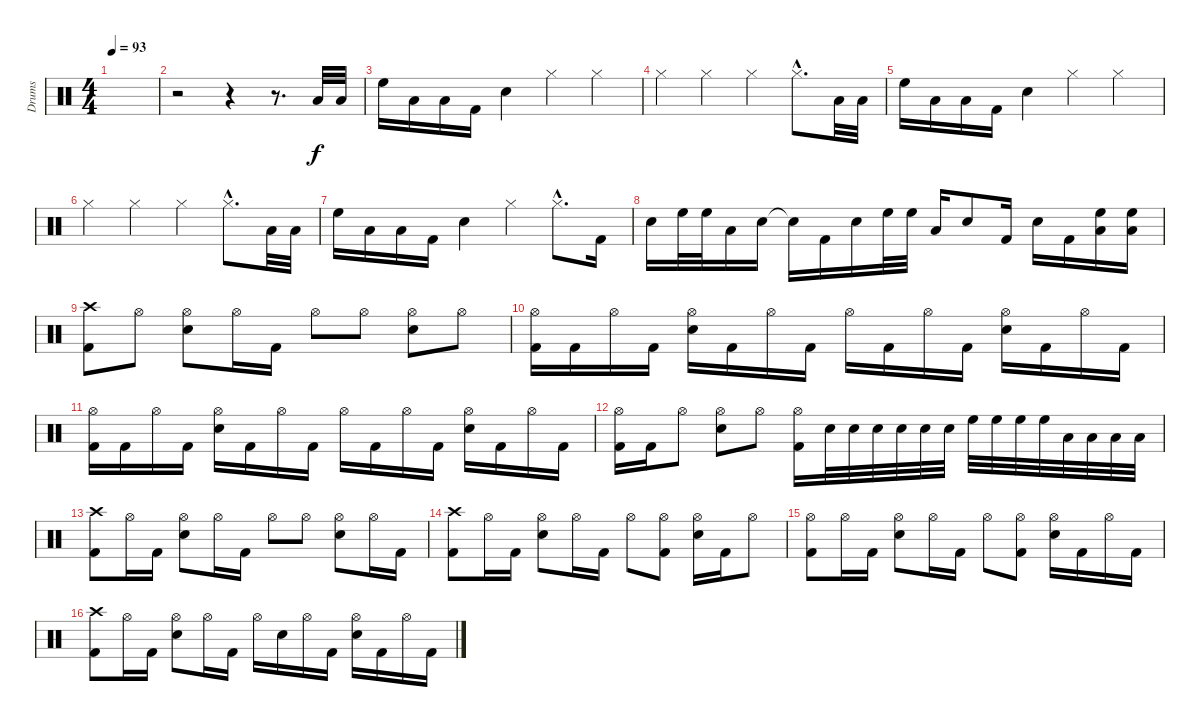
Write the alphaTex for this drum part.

\track ("Drums" "Drums") {instrument percussion}
\staff {score}
\articulation defaults
\ts (4 4)
\tempo 93
\clef neutral
\ks c
|
r.2 r.4 r.8{d} "Low Floor Tom (hit)".32 "Low Floor Tom (hit)".32 |
"High Floor Tom (hit)".16 "Low Floor Tom (hit)".16 "Low Floor Tom (hit)".16 "Kick (hit) 2".16 "Electric Snare (hit)".4 "Hi-Hat (closed)".4 "Hi-Hat (closed)".4 |
"Hi-Hat (closed)".4 "Hi-Hat (closed)".4 "Hi-Hat (closed)".4 "Hi-Hat (closed)"{hac}.8{d} "Low Floor Tom (hit)".32 "Low Floor Tom (hit)".32 |
"High Floor Tom (hit)".16 "Low Floor Tom (hit)".16 "Low Floor Tom (hit)".16 "Kick (hit) 2".16 "Electric Snare (hit)".4 "Hi-Hat (closed)".4 "Hi-Hat (closed)".4 |
"Hi-Hat (closed)".4 "Hi-Hat (closed)".4 "Hi-Hat (closed)".4 "Hi-Hat (closed)"{hac}.8{d} "Low Floor Tom (hit)".32 "Low Floor Tom (hit)".32 |
"High Floor Tom (hit)".16 "Low Floor Tom (hit)".16 "Low Floor Tom (hit)".16 "Kick (hit) 2".16 "Electric Snare (hit)".4 "Hi-Hat (closed)".4 "Hi-Hat (closed)"{hac}.8{d} "Kick (hit) 2".16 |
"Electric Snare (hit)".16 "High Floor Tom (hit)".32 "High Floor Tom (hit)".32 "Low Floor Tom (hit)".16 "Electric Snare (hit)".16 "Snare (hit)"{t}.16 "Kick (hit) 2".16 "Electric Snare (hit)".16 "High Floor Tom (hit)".32 "High Floor Tom (hit)".32 "Low Floor Tom (hit)".16 "Electric Snare (hit)".8 "Kick (hit) 2".16 "Electric Snare (hit)".16 "Kick (hit) 2".16 ("High Floor Tom (hit)" "Low Floor Tom (hit)").16 ("High Floor Tom (hit)" "Low Floor Tom (hit)").16 |
("Crash high (hit)" "Kick (hit) 2").8 "Hi-Hat (open)".8 ("Hi-Hat (open)" "Electric Snare (hit)").8 "Hi-Hat (open)".16 "Kick (hit) 2".16 "Hi-Hat (open)".8 "Hi-Hat (open)".8 ("Hi-Hat (open)" "Electric Snare (hit)").8 "Hi-Hat (open)".8 |
("Hi-Hat (open)" "Kick (hit) 2").16 "Kick (hit) 2".16 "Hi-Hat (open)".16 "Kick (hit) 2".16 ("Hi-Hat (open)" "Electric Snare (hit)").16 "Kick (hit) 2".16 "Hi-Hat (open)".16 "Kick (hit) 2".16 "Hi-Hat (open)".16 "Kick (hit) 2".16 "Hi-Hat (open)".16 "Kick (hit) 2".16 ("Hi-Hat (open)" "Electric Snare (hit)").16 "Kick (hit) 2".16 "Hi-Hat (open)".16 "Kick (hit) 2".16 |
("Hi-Hat (open)" "Kick (hit) 2").16 "Kick (hit) 2".16 "Hi-Hat (open)".16 "Kick (hit) 2".16 ("Hi-Hat (open)" "Electric Snare (hit)").16 "Kick (hit) 2".16 "Hi-Hat (open)".16 "Kick (hit) 2".16 "Hi-Hat (open)".16 "Kick (hit) 2".16 "Hi-Hat (open)".16 "Kick (hit) 2".16 ("Hi-Hat (open)" "Electric Snare (hit)").16 "Kick (hit) 2".16 "Hi-Hat (open)".16 "Kick (hit) 2".16 |
("Hi-Hat (open)" "Kick (hit) 2").16 "Kick (hit) 2".16 "Hi-Hat (open)".8 ("Hi-Hat (open)" "Electric Snare (hit)").8 "Hi-Hat (open)".8 ("Hi-Hat (open)" "Kick (hit) 2").16 "Electric Snare (hit)".32 "Electric Snare (hit)".32 "Electric Snare (hit)".32 "Electric Snare (hit)".32 "Electric Snare (hit)".32 "Electric Snare (hit)".32 "High Floor Tom (hit)".32 "High Floor Tom (hit)".32 "High Floor Tom (hit)".32 "High Floor Tom (hit)".32 "Low Tom (hit)".32 "Low Tom (hit)".32 "Low Floor Tom (hit)".32 "Low Floor Tom (hit)".32 |
("Crash high (hit)" "Kick (hit) 2").8 "Hi-Hat (open)".16 "Kick (hit) 2".16 ("Hi-Hat (open)" "Electric Snare (hit)").8 "Hi-Hat (open)".16 "Kick (hit) 2".16 "Hi-Hat (open)".8 "Hi-Hat (open)".8 ("Hi-Hat (open)" "Electric Snare (hit)").8 "Hi-Hat (open)".16 "Kick (hit) 2".16 |
("Crash high (hit)" "Kick (hit) 2").8 "Hi-Hat (open)".16 "Kick (hit) 2".16 ("Hi-Hat (open)" "Electric Snare (hit)").8 "Hi-Hat (open)".16 "Kick (hit) 2".16 "Hi-Hat (open)".8 ("Hi-Hat (open)" "Kick (hit) 2").8 ("Hi-Hat (open)" "Electric Snare (hit)").16 "Kick (hit) 2".16 "Hi-Hat (open)".8 |
("Hi-Hat (open)" "Kick (hit) 2").8 "Hi-Hat (open)".16 "Kick (hit) 2".16 ("Hi-Hat (open)" "Electric Snare (hit)").8 "Hi-Hat (open)".16 "Kick (hit) 2".16 "Hi-Hat (open)".8 ("Hi-Hat (open)" "Kick (hit) 2").8 ("Hi-Hat (open)" "Electric Snare (hit)").16 "Kick (hit) 2".16 "Hi-Hat (open)".16 "Kick (hit) 2".16 |
("Crash high (hit)" "Kick (hit) 2").8 "Hi-Hat (open)".16 "Kick (hit) 2".16 ("Hi-Hat (open)" "Electric Snare (hit)").8 "Hi-Hat (open)".16 "Kick (hit) 2".16 "Hi-Hat (open)".16 "Electric Snare (hit)".16 "Hi-Hat (open)".16 "Kick (hit) 2".16 ("Hi-Hat (open)" "Electric Snare (hit)").16 "Kick (hit) 2".16 "Hi-Hat (open)".16 "Kick (hit) 2".16
